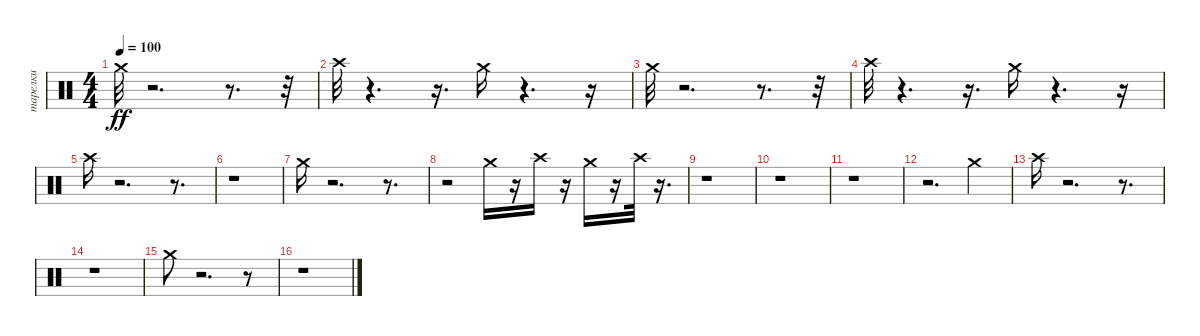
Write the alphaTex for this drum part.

\track ("тарелки" "тарелки") {instrument percussion}
\staff {score}
\articulation defaults
\ts (4 4)
\tempo 100
\clef neutral
\ks c "Crash medium (hit)".32{dy ff}
r.2{d} r.8{d} r.32 |
"Crash high (hit)".32 r.4{d} r.16{d} "Crash medium (hit)".16 r.4{d} r.16 |
"Crash medium (hit)".32 r.2{d} r.8{d} r.32 |
"Crash high (hit)".32 r.4{d} r.16{d} "Crash medium (hit)".16 r.4{d} r.16 |
"Crash high (hit)".16 r.2{d} r.8{d} |
r.1 |
"Crash medium (hit)".16 r.2{d} r.8{d} |
r.2 "Crash medium (hit)".16 r.16 "Crash high (hit)".16 r.16 "Crash medium (hit)".16 r.16 "Crash high (hit)".32 r.16{d} |
r.1 |
r.1 |
r.1 |
r.2{d} "Crash medium (hit)".4 |
"Crash high (hit)".16 r.2{d} r.8{d} |
r.1 |
"Crash medium (hit)".8 r.2{d} r.8 |
r.1
